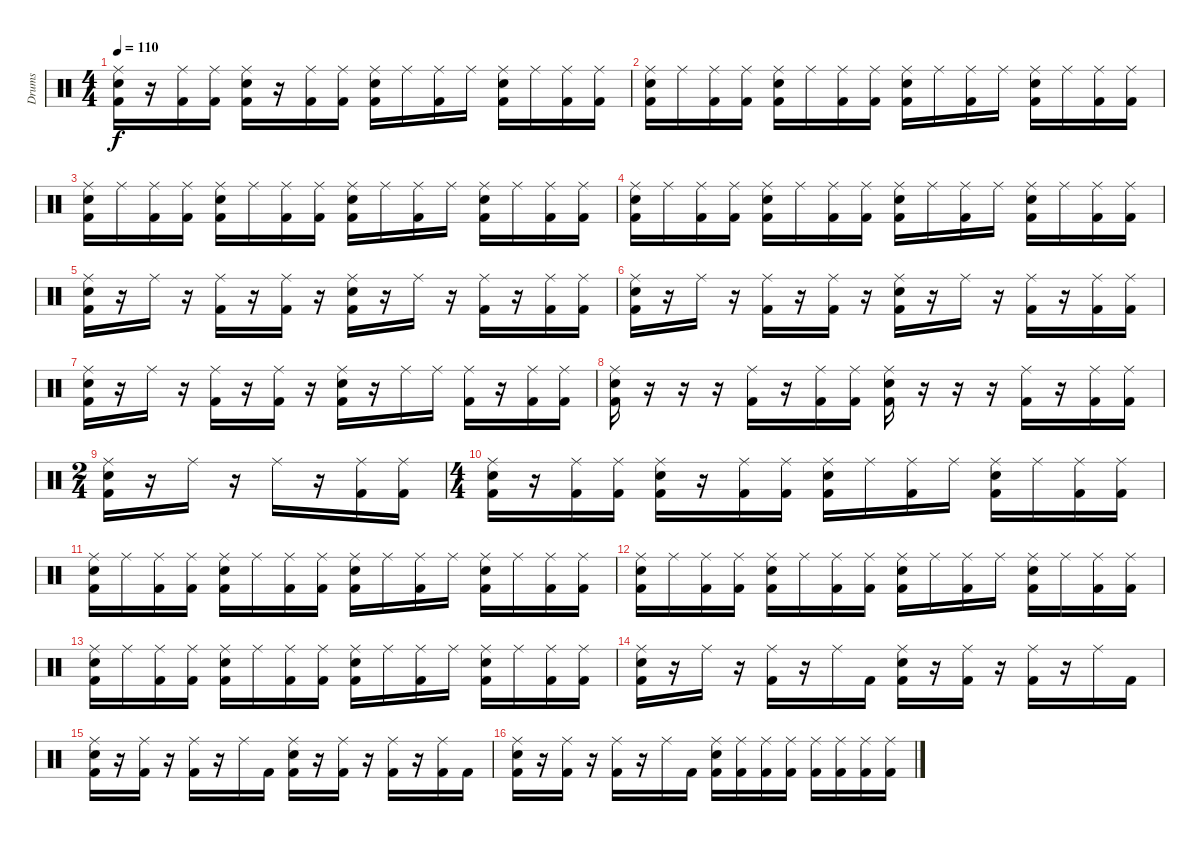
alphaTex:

\track ("Drums" "Drums") {instrument percussion}
\staff {score}
\articulation defaults
\ts (4 4)
\tempo 110
\clef neutral
\ks c
("Ride (middle)" "Electric Snare (hit)" "Kick (hit) 2").16{dy f} r.16 ("Ride (middle)" "Kick (hit) 2").16 ("Ride (middle)" "Kick (hit) 2").16 ("Ride (middle)" "Electric Snare (hit)" "Kick (hit) 2").16 r.16 ("Ride (middle)" "Kick (hit) 2").16 ("Ride (middle)" "Kick (hit) 2").16 ("Ride (middle)" "Electric Snare (hit)" "Kick (hit) 2").16 "Ride (middle)".16 ("Ride (middle)" "Kick (hit) 2").16 "Ride (middle)".16 ("Ride (middle)" "Electric Snare (hit)" "Kick (hit) 2").16 "Ride (middle)".16 ("Ride (middle)" "Kick (hit) 2").16 ("Ride (middle)" "Kick (hit) 2").16 |
("Ride (middle)" "Electric Snare (hit)" "Kick (hit) 2").16 "Ride (middle)".16 ("Ride (middle)" "Kick (hit) 2").16 ("Ride (middle)" "Kick (hit) 2").16 ("Ride (middle)" "Electric Snare (hit)" "Kick (hit) 2").16 "Ride (middle)".16 ("Ride (middle)" "Kick (hit) 2").16 ("Ride (middle)" "Kick (hit) 2").16 ("Ride (middle)" "Electric Snare (hit)" "Kick (hit) 2").16 "Ride (middle)".16 ("Ride (middle)" "Kick (hit) 2").16 "Ride (middle)".16 ("Ride (middle)" "Electric Snare (hit)" "Kick (hit) 2").16 "Ride (middle)".16 ("Ride (middle)" "Kick (hit) 2").16 ("Ride (middle)" "Kick (hit) 2").16 |
("Ride (middle)" "Electric Snare (hit)" "Kick (hit) 2").16 "Ride (middle)".16 ("Ride (middle)" "Kick (hit) 2").16 ("Ride (middle)" "Kick (hit) 2").16 ("Ride (middle)" "Electric Snare (hit)" "Kick (hit) 2").16 "Ride (middle)".16 ("Ride (middle)" "Kick (hit) 2").16 ("Ride (middle)" "Kick (hit) 2").16 ("Ride (middle)" "Electric Snare (hit)" "Kick (hit) 2").16 "Ride (middle)".16 ("Ride (middle)" "Kick (hit) 2").16 "Ride (middle)".16 ("Ride (middle)" "Electric Snare (hit)" "Kick (hit) 2").16 "Ride (middle)".16 ("Ride (middle)" "Kick (hit) 2").16 ("Ride (middle)" "Kick (hit) 2").16 |
("Ride (middle)" "Electric Snare (hit)" "Kick (hit) 2").16 "Ride (middle)".16 ("Ride (middle)" "Kick (hit) 2").16 ("Ride (middle)" "Kick (hit) 2").16 ("Ride (middle)" "Electric Snare (hit)" "Kick (hit) 2").16 "Ride (middle)".16 ("Ride (middle)" "Kick (hit) 2").16 ("Ride (middle)" "Kick (hit) 2").16 ("Ride (middle)" "Electric Snare (hit)" "Kick (hit) 2").16 "Ride (middle)".16 ("Ride (middle)" "Kick (hit) 2").16 "Ride (middle)".16 ("Ride (middle)" "Electric Snare (hit)" "Kick (hit) 2").16 "Ride (middle)".16 ("Ride (middle)" "Kick (hit) 2").16 ("Ride (middle)" "Kick (hit) 2").16 |
("Ride (middle)" "Electric Snare (hit)" "Kick (hit) 2").16 r.16 "Ride (middle)".16 r.16 ("Ride (middle)" "Kick (hit) 2").16 r.16 ("Ride (middle)" "Kick (hit) 2").16 r.16 ("Ride (middle)" "Electric Snare (hit)" "Kick (hit) 2").16 r.16 "Ride (middle)".16 r.16 ("Ride (middle)" "Kick (hit) 2").16 r.16 ("Ride (middle)" "Kick (hit) 2").16 ("Ride (middle)" "Kick (hit) 2").16 |
("Ride (middle)" "Electric Snare (hit)" "Kick (hit) 2").16 r.16 "Ride (middle)".16 r.16 ("Ride (middle)" "Kick (hit) 2").16 r.16 ("Ride (middle)" "Kick (hit) 2").16 r.16 ("Ride (middle)" "Electric Snare (hit)" "Kick (hit) 2").16 r.16 "Ride (middle)".16 r.16 ("Ride (middle)" "Kick (hit) 2").16 r.16 ("Ride (middle)" "Kick (hit) 2").16 ("Ride (middle)" "Kick (hit) 2").16 |
("Ride (middle)" "Electric Snare (hit)" "Kick (hit) 2").16 r.16 "Ride (middle)".16 r.16 ("Ride (middle)" "Kick (hit) 2").16 r.16 ("Ride (middle)" "Kick (hit) 2").16 r.16 ("Ride (middle)" "Electric Snare (hit)" "Kick (hit) 2").16 r.16 "Ride (middle)".16 "Ride (middle)".16 ("Ride (middle)" "Kick (hit) 2").16 r.16 ("Ride (middle)" "Kick (hit) 2").16 ("Ride (middle)" "Kick (hit) 2").16 |
("Ride (middle)" "Electric Snare (hit)" "Kick (hit) 2").16 r.16 r.16 r.16 ("Ride (middle)" "Kick (hit) 2").16 r.16 ("Ride (middle)" "Kick (hit) 2").16 ("Ride (middle)" "Kick (hit) 2").16 ("Ride (middle)" "Electric Snare (hit)" "Kick (hit) 2").16 r.16 r.16 r.16 ("Ride (middle)" "Kick (hit) 2").16 r.16 ("Ride (middle)" "Kick (hit) 2").16 ("Ride (middle)" "Kick (hit) 2").16 |
\ts (2 4)
("Ride (middle)" "Electric Snare (hit)" "Kick (hit) 2").16 r.16 "Ride (middle)".16 r.16 "Ride (middle)".16 r.16 ("Ride (middle)" "Kick (hit) 2").16 ("Ride (middle)" "Kick (hit) 2").16 |
\ts (4 4)
("Ride (middle)" "Electric Snare (hit)" "Kick (hit) 2").16 r.16 ("Ride (middle)" "Kick (hit) 2").16 ("Ride (middle)" "Kick (hit) 2").16 ("Ride (middle)" "Electric Snare (hit)" "Kick (hit) 2").16 r.16 ("Ride (middle)" "Kick (hit) 2").16 ("Ride (middle)" "Kick (hit) 2").16 ("Ride (middle)" "Electric Snare (hit)" "Kick (hit) 2").16 "Ride (middle)".16 ("Ride (middle)" "Kick (hit) 2").16 "Ride (middle)".16 ("Ride (middle)" "Electric Snare (hit)" "Kick (hit) 2").16 "Ride (middle)".16 ("Ride (middle)" "Kick (hit) 2").16 ("Ride (middle)" "Kick (hit) 2").16 |
("Ride (middle)" "Electric Snare (hit)" "Kick (hit) 2").16 "Ride (middle)".16 ("Ride (middle)" "Kick (hit) 2").16 ("Ride (middle)" "Kick (hit) 2").16 ("Ride (middle)" "Electric Snare (hit)" "Kick (hit) 2").16 "Ride (middle)".16 ("Ride (middle)" "Kick (hit) 2").16 ("Ride (middle)" "Kick (hit) 2").16 ("Ride (middle)" "Electric Snare (hit)" "Kick (hit) 2").16 "Ride (middle)".16 ("Ride (middle)" "Kick (hit) 2").16 "Ride (middle)".16 ("Ride (middle)" "Electric Snare (hit)" "Kick (hit) 2").16 "Ride (middle)".16 ("Ride (middle)" "Kick (hit) 2").16 ("Ride (middle)" "Kick (hit) 2").16 |
("Ride (middle)" "Electric Snare (hit)" "Kick (hit) 2").16 "Ride (middle)".16 ("Ride (middle)" "Kick (hit) 2").16 ("Ride (middle)" "Kick (hit) 2").16 ("Ride (middle)" "Electric Snare (hit)" "Kick (hit) 2").16 "Ride (middle)".16 ("Ride (middle)" "Kick (hit) 2").16 ("Ride (middle)" "Kick (hit) 2").16 ("Ride (middle)" "Electric Snare (hit)" "Kick (hit) 2").16 "Ride (middle)".16 ("Ride (middle)" "Kick (hit) 2").16 "Ride (middle)".16 ("Ride (middle)" "Electric Snare (hit)" "Kick (hit) 2").16 "Ride (middle)".16 ("Ride (middle)" "Kick (hit) 2").16 ("Ride (middle)" "Kick (hit) 2").16 |
("Ride (middle)" "Electric Snare (hit)" "Kick (hit) 2").16 "Ride (middle)".16 ("Ride (middle)" "Kick (hit) 2").16 ("Ride (middle)" "Kick (hit) 2").16 ("Ride (middle)" "Electric Snare (hit)" "Kick (hit) 2").16 "Ride (middle)".16 ("Ride (middle)" "Kick (hit) 2").16 ("Ride (middle)" "Kick (hit) 2").16 ("Ride (middle)" "Electric Snare (hit)" "Kick (hit) 2").16 "Ride (middle)".16 ("Ride (middle)" "Kick (hit) 2").16 "Ride (middle)".16 ("Ride (middle)" "Electric Snare (hit)" "Kick (hit) 2").16 "Ride (middle)".16 ("Ride (middle)" "Kick (hit) 2").16 ("Ride (middle)" "Kick (hit) 2").16 |
("Ride (middle)" "Electric Snare (hit)" "Kick (hit) 2").16 r.16 "Ride (middle)".16 r.16 ("Ride (middle)" "Kick (hit) 2").16 r.16 "Ride (middle)".16 "Kick (hit) 2".16 ("Ride (middle)" "Electric Snare (hit)" "Kick (hit) 2").16 r.16 ("Ride (middle)" "Kick (hit) 2").16 r.16 ("Ride (middle)" "Kick (hit) 2").16 r.16 "Ride (middle)".16 "Kick (hit) 2".16 |
("Ride (middle)" "Electric Snare (hit)" "Kick (hit) 2").16 r.16 ("Ride (middle)" "Kick (hit) 2").16 r.16 ("Ride (middle)" "Kick (hit) 2").16 r.16 "Ride (middle)".16 "Kick (hit) 2".16 ("Ride (middle)" "Electric Snare (hit)" "Kick (hit) 2").16 r.16 ("Ride (middle)" "Kick (hit) 2").16 r.16 ("Ride (middle)" "Kick (hit) 2").16 r.16 ("Ride (middle)" "Kick (hit) 2").16 "Kick (hit) 2".16 |
("Ride (middle)" "Electric Snare (hit)" "Kick (hit) 2").16 r.16 ("Ride (middle)" "Kick (hit) 2").16 r.16 ("Ride (middle)" "Kick (hit) 2").16 r.16 "Ride (middle)".16 "Kick (hit) 2".16 ("Ride (middle)" "Electric Snare (hit)" "Kick (hit) 2").16 ("Ride (middle)" "Kick (hit) 2").16 ("Ride (middle)" "Kick (hit) 2").16 ("Ride (middle)" "Kick (hit) 2").16 ("Ride (middle)" "Kick (hit) 2").16 ("Ride (middle)" "Kick (hit) 2").16 ("Ride (middle)" "Kick (hit) 2").16 ("Ride (middle)" "Kick (hit) 2").16
